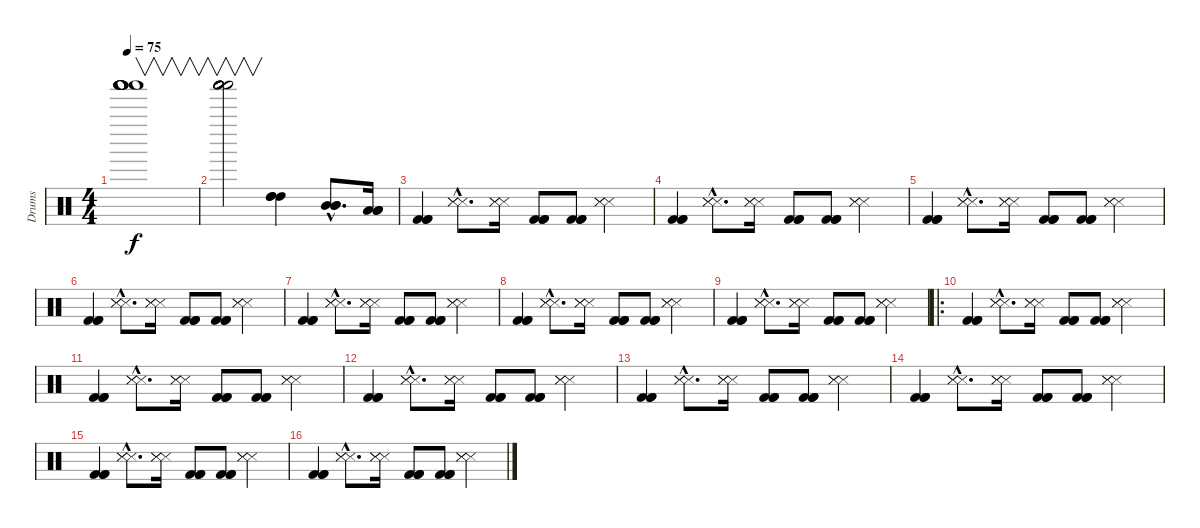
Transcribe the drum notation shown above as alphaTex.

\track ("Drums" "Drums") {instrument percussion}
\staff {score}
\articulation defaults
\ts (4 4)
\tempo 75
\clef neutral
\ks c
("Shaker (hit)" "Shaker (hit)" "Shaker (hit)" "Shaker (hit)" "Shaker (hit)" "Shaker (hit)").1{v dy f} |
("Shaker (hit)" "Shaker (hit)" "Shaker (hit)" "Shaker (hit)" "Shaker (hit)" "Shaker (hit)").2{v} ("High Tom (hit)" "High Tom (hit)" "High Tom (hit)").4 ("Mid Tom (hit)"{hac} "Mid Tom (hit)"{hac} "Mid Tom (hit)"{hac}).8{d} ("Low Tom (hit)" "Low Tom (hit)" "Low Tom (hit)").16 |
("Kick (hit) 2" "Kick (hit) 2" "Kick (hit) 2").4 ("Snare (side stick) 3"{hac} "Snare (side stick) 3"{hac} "Snare (side stick) 3"{hac}).8{d} ("Snare (side stick) 3" "Snare (side stick) 3" "Snare (side stick) 3").16 ("Kick (hit) 2" "Kick (hit) 2" "Kick (hit) 2").8 ("Kick (hit) 2" "Kick (hit) 2" "Kick (hit) 2").8 ("Snare (side stick) 3" "Snare (side stick) 3" "Snare (side stick) 3").4 |
("Kick (hit) 2" "Kick (hit) 2" "Kick (hit) 2").4 ("Snare (side stick) 3"{hac} "Snare (side stick) 3"{hac} "Snare (side stick) 3"{hac}).8{d} ("Snare (side stick) 3" "Snare (side stick) 3" "Snare (side stick) 3").16 ("Kick (hit) 2" "Kick (hit) 2" "Kick (hit) 2").8 ("Kick (hit) 2" "Kick (hit) 2" "Kick (hit) 2").8 ("Snare (side stick) 3" "Snare (side stick) 3" "Snare (side stick) 3").4 |
("Kick (hit) 2" "Kick (hit) 2" "Kick (hit) 2").4 ("Snare (side stick) 3"{hac} "Snare (side stick) 3"{hac} "Snare (side stick) 3"{hac}).8{d} ("Snare (side stick) 3" "Snare (side stick) 3" "Snare (side stick) 3").16 ("Kick (hit) 2" "Kick (hit) 2" "Kick (hit) 2").8 ("Kick (hit) 2" "Kick (hit) 2" "Kick (hit) 2").8 ("Snare (side stick) 3" "Snare (side stick) 3" "Snare (side stick) 3").4 |
("Kick (hit) 2" "Kick (hit) 2" "Kick (hit) 2").4 ("Snare (side stick) 3"{hac} "Snare (side stick) 3"{hac} "Snare (side stick) 3"{hac}).8{d} ("Snare (side stick) 3" "Snare (side stick) 3" "Snare (side stick) 3").16 ("Kick (hit) 2" "Kick (hit) 2" "Kick (hit) 2").8 ("Kick (hit) 2" "Kick (hit) 2" "Kick (hit) 2").8 ("Snare (side stick) 3" "Snare (side stick) 3" "Snare (side stick) 3").4 |
("Kick (hit) 2" "Kick (hit) 2" "Kick (hit) 2").4 ("Snare (side stick) 3"{hac} "Snare (side stick) 3"{hac} "Snare (side stick) 3"{hac}).8{d} ("Snare (side stick) 3" "Snare (side stick) 3" "Snare (side stick) 3").16 ("Kick (hit) 2" "Kick (hit) 2" "Kick (hit) 2").8 ("Kick (hit) 2" "Kick (hit) 2" "Kick (hit) 2").8 ("Snare (side stick) 3" "Snare (side stick) 3" "Snare (side stick) 3").4 |
("Kick (hit) 2" "Kick (hit) 2" "Kick (hit) 2").4 ("Snare (side stick) 3"{hac} "Snare (side stick) 3"{hac} "Snare (side stick) 3"{hac}).8{d} ("Snare (side stick) 3" "Snare (side stick) 3" "Snare (side stick) 3").16 ("Kick (hit) 2" "Kick (hit) 2" "Kick (hit) 2").8 ("Kick (hit) 2" "Kick (hit) 2" "Kick (hit) 2").8 ("Snare (side stick) 3" "Snare (side stick) 3" "Snare (side stick) 3").4 |
("Kick (hit) 2" "Kick (hit) 2" "Kick (hit) 2").4 ("Snare (side stick) 3"{hac} "Snare (side stick) 3"{hac} "Snare (side stick) 3"{hac}).8{d} ("Snare (side stick) 3" "Snare (side stick) 3" "Snare (side stick) 3").16 ("Kick (hit) 2" "Kick (hit) 2" "Kick (hit) 2").8 ("Kick (hit) 2" "Kick (hit) 2" "Kick (hit) 2").8 ("Snare (side stick) 3" "Snare (side stick) 3" "Snare (side stick) 3").4 |
\ro
("Kick (hit) 2" "Kick (hit) 2" "Kick (hit) 2").4 ("Snare (side stick) 3"{hac} "Snare (side stick) 3"{hac} "Snare (side stick) 3"{hac}).8{d} ("Snare (side stick) 3" "Snare (side stick) 3" "Snare (side stick) 3").16 ("Kick (hit) 2" "Kick (hit) 2" "Kick (hit) 2").8 ("Kick (hit) 2" "Kick (hit) 2" "Kick (hit) 2").8 ("Snare (side stick) 3" "Snare (side stick) 3" "Snare (side stick) 3").4 |
("Kick (hit) 2" "Kick (hit) 2" "Kick (hit) 2").4 ("Snare (side stick) 3"{hac} "Snare (side stick) 3"{hac} "Snare (side stick) 3"{hac}).8{d} ("Snare (side stick) 3" "Snare (side stick) 3" "Snare (side stick) 3").16 ("Kick (hit) 2" "Kick (hit) 2" "Kick (hit) 2").8 ("Kick (hit) 2" "Kick (hit) 2" "Kick (hit) 2").8 ("Snare (side stick) 3" "Snare (side stick) 3" "Snare (side stick) 3").4 |
("Kick (hit) 2" "Kick (hit) 2" "Kick (hit) 2").4 ("Snare (side stick) 3"{hac} "Snare (side stick) 3"{hac} "Snare (side stick) 3"{hac}).8{d} ("Snare (side stick) 3" "Snare (side stick) 3" "Snare (side stick) 3").16 ("Kick (hit) 2" "Kick (hit) 2" "Kick (hit) 2").8 ("Kick (hit) 2" "Kick (hit) 2" "Kick (hit) 2").8 ("Snare (side stick) 3" "Snare (side stick) 3" "Snare (side stick) 3").4 |
("Kick (hit) 2" "Kick (hit) 2" "Kick (hit) 2").4 ("Snare (side stick) 3"{hac} "Snare (side stick) 3"{hac} "Snare (side stick) 3"{hac}).8{d} ("Snare (side stick) 3" "Snare (side stick) 3" "Snare (side stick) 3").16 ("Kick (hit) 2" "Kick (hit) 2" "Kick (hit) 2").8 ("Kick (hit) 2" "Kick (hit) 2" "Kick (hit) 2").8 ("Snare (side stick) 3" "Snare (side stick) 3" "Snare (side stick) 3").4 |
("Kick (hit) 2" "Kick (hit) 2" "Kick (hit) 2").4 ("Snare (side stick) 3"{hac} "Snare (side stick) 3"{hac} "Snare (side stick) 3"{hac}).8{d} ("Snare (side stick) 3" "Snare (side stick) 3" "Snare (side stick) 3").16 ("Kick (hit) 2" "Kick (hit) 2" "Kick (hit) 2").8 ("Kick (hit) 2" "Kick (hit) 2" "Kick (hit) 2").8 ("Snare (side stick) 3" "Snare (side stick) 3" "Snare (side stick) 3").4 |
("Kick (hit) 2" "Kick (hit) 2" "Kick (hit) 2").4 ("Snare (side stick) 3"{hac} "Snare (side stick) 3"{hac} "Snare (side stick) 3"{hac}).8{d} ("Snare (side stick) 3" "Snare (side stick) 3" "Snare (side stick) 3").16 ("Kick (hit) 2" "Kick (hit) 2" "Kick (hit) 2").8 ("Kick (hit) 2" "Kick (hit) 2" "Kick (hit) 2").8 ("Snare (side stick) 3" "Snare (side stick) 3" "Snare (side stick) 3").4 |
("Kick (hit) 2" "Kick (hit) 2" "Kick (hit) 2").4 ("Snare (side stick) 3"{hac} "Snare (side stick) 3"{hac} "Snare (side stick) 3"{hac}).8{d} ("Snare (side stick) 3" "Snare (side stick) 3" "Snare (side stick) 3").16 ("Kick (hit) 2" "Kick (hit) 2" "Kick (hit) 2").8 ("Kick (hit) 2" "Kick (hit) 2" "Kick (hit) 2").8 ("Snare (side stick) 3" "Snare (side stick) 3" "Snare (side stick) 3").4
